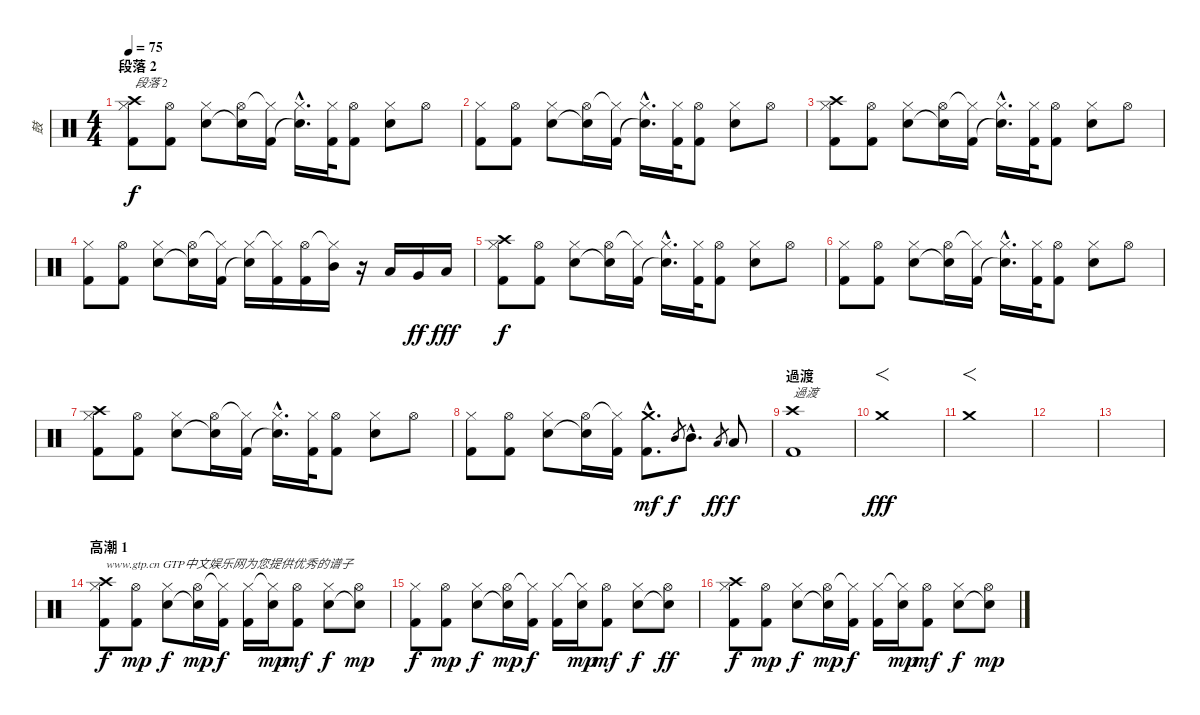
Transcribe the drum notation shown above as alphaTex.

\track ("鼓" "鼓") {instrument percussion}
\staff {score}
\articulation defaults
\ts (4 4)
\section ("" "段落 2")
\tempo 75
\clef neutral
\ks c
("Hi-Hat (closed)" "Crash high (hit)" "Kick (hit) 2").8{txt "段落 2" dy f} ("Hi-Hat (open)" "Kick (hit) 2").8 ("Hi-Hat (closed)" "Electric Snare (hit)").8 ("Hi-Hat (open)" "Snare (hit)"{t}).16 ("Hi-Hat (closed)"{t} "Kick (hit) 2").16 ("Hi-Hat (closed)"{hac} "Snare (hit)"{hac t}).16{d} ("Hi-Hat (closed)" "Kick (hit) 2").32 ("Hi-Hat (open)" "Kick (hit) 2").8 ("Hi-Hat (closed)" "Electric Snare (hit)").8 "Hi-Hat (open)".8 |
("Hi-Hat (closed)" "Kick (hit) 2").8 ("Hi-Hat (open)" "Kick (hit) 2").8 ("Hi-Hat (closed)" "Electric Snare (hit)").8 ("Hi-Hat (open)" "Snare (hit)"{t}).16 ("Hi-Hat (closed)"{t} "Kick (hit) 2").16 ("Hi-Hat (closed)"{hac} "Snare (hit)"{hac t}).16{d} ("Hi-Hat (closed)" "Kick (hit) 2").32 ("Hi-Hat (open)" "Kick (hit) 2").8 ("Hi-Hat (closed)" "Electric Snare (hit)").8 "Hi-Hat (open)".8 |
("Hi-Hat (closed)" "Crash high (hit)" "Kick (hit) 2").8 ("Hi-Hat (open)" "Kick (hit) 2").8 ("Hi-Hat (closed)" "Electric Snare (hit)").8 ("Hi-Hat (open)" "Snare (hit)"{t}).16 ("Hi-Hat (closed)"{t} "Kick (hit) 2").16 ("Hi-Hat (closed)"{hac} "Snare (hit)"{hac t}).16{d} ("Hi-Hat (closed)" "Kick (hit) 2").32 ("Hi-Hat (open)" "Kick (hit) 2").8 ("Hi-Hat (closed)" "Electric Snare (hit)").8 "Hi-Hat (open)".8 |
("Hi-Hat (closed)" "Kick (hit) 2").8 ("Hi-Hat (open)" "Kick (hit) 2").8 ("Hi-Hat (closed)" "Electric Snare (hit)").8 ("Hi-Hat (open)" "Snare (hit)"{t}).16 ("Hi-Hat (closed)"{t} "Kick (hit) 2").16 ("Hi-Hat (closed)" "Snare (hit)"{t}).16 ("Hi-Hat (closed)"{t} "Kick (hit) 2").16 ("Hi-Hat (open)" "Kick (hit) 2").16 ("Hi-Hat (closed)"{t} "Mid Tom (hit)").16 r.16 "Low Tom (hit)".16 "Very Low Tom (hit)".16{dy ff} "Low Tom (hit)".16{dy fff} |
("Hi-Hat (closed)" "Crash high (hit)" "Kick (hit) 2").8{dy f} ("Hi-Hat (open)" "Kick (hit) 2").8 ("Hi-Hat (closed)" "Electric Snare (hit)").8 ("Hi-Hat (open)" "Snare (hit)"{t}).16 ("Hi-Hat (closed)"{t} "Kick (hit) 2").16 ("Hi-Hat (closed)"{hac} "Snare (hit)"{hac t}).16{d} ("Hi-Hat (closed)" "Kick (hit) 2").32 ("Hi-Hat (open)" "Kick (hit) 2").8 ("Hi-Hat (closed)" "Electric Snare (hit)").8 "Hi-Hat (open)".8 |
("Hi-Hat (closed)" "Kick (hit) 2").8 ("Hi-Hat (open)" "Kick (hit) 2").8 ("Hi-Hat (closed)" "Electric Snare (hit)").8 ("Hi-Hat (open)" "Snare (hit)"{t}).16 ("Hi-Hat (closed)"{t} "Kick (hit) 2").16 ("Hi-Hat (closed)"{hac} "Snare (hit)"{hac t}).16{d} ("Hi-Hat (closed)" "Kick (hit) 2").32 ("Hi-Hat (open)" "Kick (hit) 2").8 ("Hi-Hat (closed)" "Electric Snare (hit)").8 "Hi-Hat (open)".8 |
("Hi-Hat (closed)" "Crash high (hit)" "Kick (hit) 2").8 ("Hi-Hat (open)" "Kick (hit) 2").8 ("Hi-Hat (closed)" "Electric Snare (hit)").8 ("Hi-Hat (open)" "Snare (hit)"{t}).16 ("Hi-Hat (closed)"{t} "Kick (hit) 2").16 ("Hi-Hat (closed)"{hac} "Snare (hit)"{hac t}).16{d} ("Hi-Hat (closed)" "Kick (hit) 2").32 ("Hi-Hat (open)" "Kick (hit) 2").8 ("Hi-Hat (closed)" "Electric Snare (hit)").8 "Hi-Hat (open)".8 |
("Hi-Hat (closed)" "Kick (hit) 2").8 ("Hi-Hat (open)" "Kick (hit) 2").8 ("Hi-Hat (closed)" "Electric Snare (hit)").8 ("Hi-Hat (open)" "Snare (hit)"{t}).16 ("Hi-Hat (closed)"{t} "Kick (hit) 2").16 ("Crash medium (hit)"{hac} "Kick (hit) 2"{hac}).8{d dy mf} "Mid Tom (hit)".8{gr dy f} "Mid Tom (hit)"{hac}.8{d} "Low Tom (hit)".8{gr dy ff} "Low Tom (hit)".8{dy f} |
\section ("" "過渡")
("Crash high (hit)" "Kick (hit) 2").1{txt "過渡"} |
"Crash medium (hit)".1{f dy fff} |
"Crash medium (hit)".1{f} |
|
|
\section ("" "高潮 1")
("Hi-Hat (closed)" "Crash high (hit)" "Kick (hit) 2").8{txt "www.gtp.cn GTP中文娱乐网为您提供优秀的谱子" dy f} ("Hi-Hat (open)" "Kick (hit) 2").8{dy mp} ("Hi-Hat (closed)" "Electric Snare (hit)").8{dy f} ("Hi-Hat (open)" "Snare (hit)"{t}).16{dy mp} ("Hi-Hat (closed)"{t} "Kick (hit) 2").16{dy f} ("Hi-Hat (closed)" "Kick (hit) 2").16 ("Hi-Hat (closed)"{t} "Electric Snare (hit)").16{dy mp} ("Hi-Hat (open)" "Kick (hit) 2").8{dy mf} ("Hi-Hat (closed)" "Electric Snare (hit)").8{dy f} ("Hi-Hat (open)" "Snare (hit)"{t}).8{dy mp} |
("Hi-Hat (closed)" "Kick (hit) 2").8{dy f} ("Hi-Hat (open)" "Kick (hit) 2").8{dy mp} ("Hi-Hat (closed)" "Electric Snare (hit)").8{dy f} ("Hi-Hat (open)" "Snare (hit)"{t}).16{dy mp} ("Hi-Hat (closed)"{t} "Kick (hit) 2").16{dy f} ("Hi-Hat (closed)" "Kick (hit) 2").16 ("Hi-Hat (closed)"{t} "Electric Snare (hit)").16{dy mp} ("Hi-Hat (open)" "Kick (hit) 2").8{dy mf} ("Hi-Hat (closed)" "Electric Snare (hit)").8{dy f} ("Hi-Hat (open)" "Snare (hit)"{t}).8{dy ff} |
("Hi-Hat (closed)" "Crash high (hit)" "Kick (hit) 2").8{dy f} ("Hi-Hat (open)" "Kick (hit) 2").8{dy mp} ("Hi-Hat (closed)" "Electric Snare (hit)").8{dy f} ("Hi-Hat (open)" "Snare (hit)"{t}).16{dy mp} ("Hi-Hat (closed)"{t} "Kick (hit) 2").16{dy f} ("Hi-Hat (closed)" "Kick (hit) 2").16 ("Hi-Hat (closed)"{t} "Electric Snare (hit)").16{dy mp} ("Hi-Hat (open)" "Kick (hit) 2").8{dy mf} ("Hi-Hat (closed)" "Electric Snare (hit)").8{dy f} ("Hi-Hat (open)" "Snare (hit)"{t}).8{dy mp}
